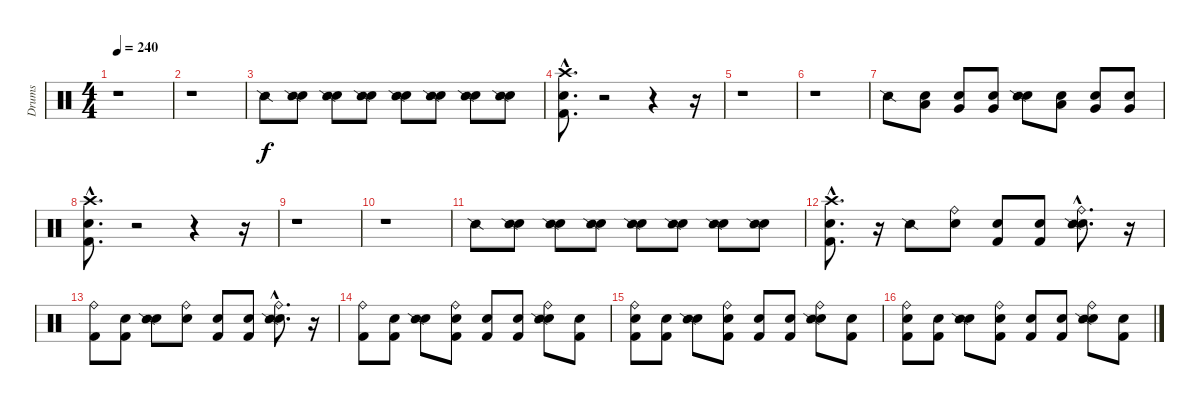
\track ("Drums" "Drums") {instrument percussion}
\staff {score}
\articulation defaults
\ts (4 4)
\tempo 240
\clef neutral
\ks c
r.1{dy f} |
r.1 |
"Snare (side stick) 2".8 ("Snare (hit)" "Snare (side stick) 2").8 ("Snare (hit)" "Snare (side stick) 2").8 ("Snare (hit)" "Snare (side stick) 2").8 ("Snare (hit)" "Snare (side stick) 2").8 ("Snare (hit)" "Snare (side stick) 2").8 ("Snare (hit)" "Snare (side stick) 2").8 ("Snare (hit)" "Snare (side stick) 2").8 |
("Snare (hit)"{hac} "Kick (hit) 2"{hac} "Crash high (hit)"{hac}).8{d} r.2 r.4 r.16 |
r.1 |
r.1 |
"Snare (side stick) 2".8 ("Snare (hit)" "Low Tom (hit)").8 ("Snare (hit)" "Very Low Tom (hit)").8 ("Snare (hit)" "Very Low Tom (hit)").8 ("Snare (hit)" "Snare (side stick) 2").8 ("Snare (hit)" "Low Tom (hit)").8 ("Snare (hit)" "Very Low Tom (hit)").8 ("Snare (hit)" "Very Low Tom (hit)").8 |
("Snare (hit)"{hac} "Kick (hit) 2"{hac} "Crash high (hit)"{hac}).8{d} r.2 r.4 r.16 |
r.1 |
r.1 |
"Snare (side stick) 2".8 ("Snare (hit)" "Snare (side stick) 2").8 ("Snare (hit)" "Snare (side stick) 2").8 ("Snare (hit)" "Snare (side stick) 2").8 ("Snare (hit)" "Snare (side stick) 2").8 ("Snare (hit)" "Snare (side stick) 2").8 ("Snare (hit)" "Snare (side stick) 2").8 ("Snare (hit)" "Snare (side stick) 2").8 |
("Snare (hit)"{hac} "Kick (hit) 2"{hac} "Crash high (hit)"{hac}).8{d} r.16 "Snare (side stick) 2".8 ("Snare (hit)" "Ride (bell)").8 ("Snare (hit)" "Kick (hit) 2").8 ("Snare (hit)" "Kick (hit) 2").8 ("Snare (hit)"{hac} "Snare (side stick) 2"{hac} "Ride (bell)"{hac}).8{d} r.16 |
("Kick (hit) 2" "Ride (bell)").8 ("Snare (hit)" "Kick (hit) 2").8 ("Snare (hit)" "Snare (side stick) 2").8 ("Snare (hit)" "Ride (bell)").8 ("Snare (hit)" "Kick (hit) 2").8 ("Snare (hit)" "Kick (hit) 2").8 ("Snare (hit)"{hac} "Snare (side stick) 2"{hac} "Ride (bell)"{hac}).8{d} r.16 |
("Kick (hit) 2" "Ride (bell)").8 ("Snare (hit)" "Kick (hit) 2").8 ("Snare (hit)" "Snare (side stick) 2").8 ("Snare (hit)" "Kick (hit) 2" "Ride (bell)").8 ("Snare (hit)" "Kick (hit) 2").8 ("Snare (hit)" "Kick (hit) 2").8 ("Snare (hit)" "Ride (bell)" "Snare (side stick) 2").8 ("Snare (hit)" "Kick (hit) 2").8 |
("Snare (hit)" "Kick (hit) 2" "Ride (bell)").8 ("Snare (hit)" "Kick (hit) 2").8 ("Snare (hit)" "Snare (side stick) 2").8 ("Snare (hit)" "Kick (hit) 2" "Ride (bell)").8 ("Snare (hit)" "Kick (hit) 2").8 ("Snare (hit)" "Kick (hit) 2").8 ("Snare (hit)" "Ride (bell)" "Snare (side stick) 2").8 ("Snare (hit)" "Kick (hit) 2").8 |
("Snare (hit)" "Kick (hit) 2" "Ride (bell)").8 ("Snare (hit)" "Kick (hit) 2").8 ("Snare (hit)" "Snare (side stick) 2").8 ("Snare (hit)" "Kick (hit) 2" "Ride (bell)").8 ("Snare (hit)" "Kick (hit) 2").8 ("Snare (hit)" "Kick (hit) 2").8 ("Snare (hit)" "Ride (bell)" "Snare (side stick) 2").8 ("Snare (hit)" "Kick (hit) 2").8
